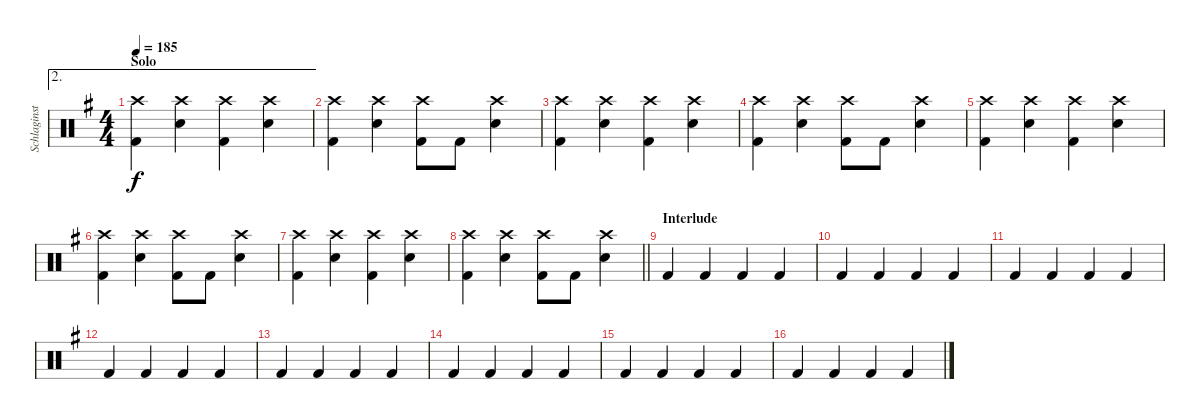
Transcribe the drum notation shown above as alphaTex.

\track ("Schlaginstrumente - Auswahl" "Schlaginst") {instrument percussion}
\staff {score}
\articulation defaults
\ae 2
\ts (4 4)
\section ("" "Solo")
\tempo 185
\clef neutral
\ks eminor
("Kick (hit) 2" "Crash high (hit)").4{dy f} ("Snare (hit) 2" "Crash high (hit)").4 ("Kick (hit) 2" "Crash high (hit)").4 ("Snare (hit) 2" "Crash high (hit)").4 |
("Kick (hit) 2" "Crash high (hit)").4 ("Snare (hit) 2" "Crash high (hit)").4 ("Kick (hit) 2" "Crash high (hit)").8 "Kick (hit) 2".8 ("Snare (hit) 2" "Crash high (hit)").4 |
("Kick (hit) 2" "Crash high (hit)").4 ("Snare (hit) 2" "Crash high (hit)").4 ("Kick (hit) 2" "Crash high (hit)").4 ("Snare (hit) 2" "Crash high (hit)").4 |
("Kick (hit) 2" "Crash high (hit)").4 ("Snare (hit) 2" "Crash high (hit)").4 ("Kick (hit) 2" "Crash high (hit)").8 "Kick (hit) 2".8 ("Snare (hit) 2" "Crash high (hit)").4 |
("Kick (hit) 2" "Crash high (hit)").4 ("Snare (hit) 2" "Crash high (hit)").4 ("Kick (hit) 2" "Crash high (hit)").4 ("Snare (hit) 2" "Crash high (hit)").4 |
("Kick (hit) 2" "Crash high (hit)").4 ("Snare (hit) 2" "Crash high (hit)").4 ("Kick (hit) 2" "Crash high (hit)").8 "Kick (hit) 2".8 ("Snare (hit) 2" "Crash high (hit)").4 |
("Kick (hit) 2" "Crash high (hit)").4 ("Snare (hit) 2" "Crash high (hit)").4 ("Kick (hit) 2" "Crash high (hit)").4 ("Snare (hit) 2" "Crash high (hit)").4 |
\barLineRight lightlight
("Kick (hit) 2" "Crash high (hit)").4 ("Snare (hit) 2" "Crash high (hit)").4 ("Kick (hit) 2" "Crash high (hit)").8 "Kick (hit) 2".8 ("Snare (hit) 2" "Crash high (hit)").4 |
\section ("" "Interlude")
"Kick (hit) 2".4 "Kick (hit) 2".4 "Kick (hit) 2".4 "Kick (hit) 2".4 |
"Kick (hit) 2".4 "Kick (hit) 2".4 "Kick (hit) 2".4 "Kick (hit) 2".4 |
"Kick (hit) 2".4 "Kick (hit) 2".4 "Kick (hit) 2".4 "Kick (hit) 2".4 |
"Kick (hit) 2".4 "Kick (hit) 2".4 "Kick (hit) 2".4 "Kick (hit) 2".4 |
"Kick (hit) 2".4 "Kick (hit) 2".4 "Kick (hit) 2".4 "Kick (hit) 2".4 |
"Kick (hit) 2".4 "Kick (hit) 2".4 "Kick (hit) 2".4 "Kick (hit) 2".4 |
"Kick (hit) 2".4 "Kick (hit) 2".4 "Kick (hit) 2".4 "Kick (hit) 2".4 |
"Kick (hit) 2".4 "Kick (hit) 2".4 "Kick (hit) 2".4 "Kick (hit) 2".4
